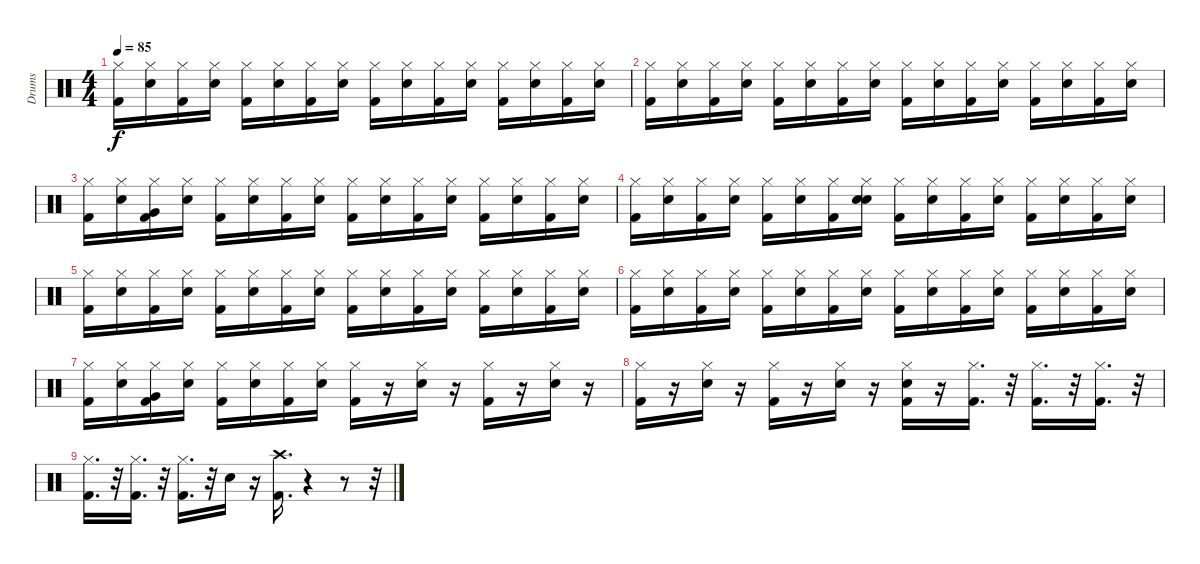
\track ("Drums" "Drums") {instrument percussion}
\staff {score}
\articulation defaults
\ts (4 4)
\tempo 85
\clef neutral
\ks c
("Hi-Hat (closed)" "Kick (hit) 2").16{dy f} ("Hi-Hat (closed)" "Snare (hit) 2").16 ("Kick (hit) 2" "Hi-Hat (closed)").16 ("Hi-Hat (closed)" "Snare (hit) 2").16 ("Kick (hit) 2" "Hi-Hat (closed)").16 ("Snare (hit) 2" "Hi-Hat (closed)").16 ("Hi-Hat (closed)" "Kick (hit) 2").16 ("Snare (hit) 2" "Hi-Hat (closed)").16 ("Hi-Hat (closed)" "Kick (hit) 2").16 ("Hi-Hat (closed)" "Snare (hit) 2").16 ("Kick (hit) 2" "Hi-Hat (closed)").16 ("Hi-Hat (closed)" "Snare (hit) 2").16 ("Kick (hit) 2" "Hi-Hat (closed)").16 ("Hi-Hat (closed)" "Snare (hit) 2").16 ("Hi-Hat (closed)" "Kick (hit) 2").16 ("Hi-Hat (closed)" "Snare (hit) 2").16 |
("Hi-Hat (closed)" "Kick (hit) 2").16 ("Snare (hit) 2" "Hi-Hat (closed)").16 ("Kick (hit) 2" "Hi-Hat (closed)").16 ("Hi-Hat (closed)" "Snare (hit) 2").16 ("Kick (hit) 2" "Hi-Hat (closed)").16 ("Hi-Hat (closed)" "Snare (hit) 2").16 ("Hi-Hat (closed)" "Kick (hit) 2").16 ("Snare (hit) 2" "Hi-Hat (closed)").16 ("Kick (hit) 2" "Hi-Hat (closed)").16 ("Snare (hit) 2" "Hi-Hat (closed)").16 ("Hi-Hat (closed)" "Kick (hit) 2").16 ("Hi-Hat (closed)" "Snare (hit) 2").16 ("Hi-Hat (closed)" "Kick (hit) 2").16 ("Hi-Hat (closed)" "Snare (hit) 2").16 ("Hi-Hat (closed)" "Kick (hit) 2").16 ("Hi-Hat (closed)" "Snare (hit) 2").16 |
("Kick (hit) 2" "Hi-Hat (closed)").16 ("Hi-Hat (closed)" "Snare (hit) 2").16 ("Very Low Tom (hit)" "Kick (hit) 2" "Hi-Hat (closed)").16 ("Hi-Hat (closed)" "Snare (hit) 2").16 ("Kick (hit) 2" "Hi-Hat (closed)").16 ("Snare (hit) 2" "Hi-Hat (closed)").16 ("Hi-Hat (closed)" "Kick (hit) 2").16 ("Snare (hit) 2" "Hi-Hat (closed)").16 ("Hi-Hat (closed)" "Kick (hit) 2").16 ("Snare (hit) 2" "Hi-Hat (closed)").16 ("Hi-Hat (closed)" "Kick (hit) 2").16 ("Hi-Hat (closed)" "Snare (hit) 2").16 ("Kick (hit) 2" "Hi-Hat (closed)").16 ("Hi-Hat (closed)" "Snare (hit) 2").16 ("Kick (hit) 2" "Hi-Hat (closed)").16 ("Hi-Hat (closed)" "Snare (hit) 2").16 |
("Hi-Hat (closed)" "Kick (hit) 2").16 ("Snare (hit) 2" "Hi-Hat (closed)").16 ("Hi-Hat (closed)" "Kick (hit) 2").16 ("Hi-Hat (closed)" "Snare (hit) 2").16 ("Kick (hit) 2" "Hi-Hat (closed)").16 ("Hi-Hat (closed)" "Snare (hit) 2").16 ("Kick (hit) 2" "Hi-Hat (closed)").16 ("Hi-Hat (closed)" "Snare (hit) 2" "Snare (hit) 2").16 ("Kick (hit) 2" "Hi-Hat (closed)").16 ("Hi-Hat (closed)" "Snare (hit) 2").16 ("Hi-Hat (closed)" "Kick (hit) 2").16 ("Hi-Hat (closed)" "Snare (hit) 2").16 ("Kick (hit) 2" "Hi-Hat (closed)").16 ("Snare (hit) 2" "Hi-Hat (closed)").16 ("Hi-Hat (closed)" "Kick (hit) 2").16 ("Hi-Hat (closed)" "Snare (hit) 2").16 |
("Kick (hit) 2" "Hi-Hat (closed)").16 ("Snare (hit) 2" "Hi-Hat (closed)").16 ("Hi-Hat (closed)" "Kick (hit) 2").16 ("Hi-Hat (closed)" "Snare (hit) 2").16 ("Kick (hit) 2" "Hi-Hat (closed)").16 ("Hi-Hat (closed)" "Snare (hit) 2").16 ("Hi-Hat (closed)" "Kick (hit) 2").16 ("Hi-Hat (closed)" "Snare (hit) 2").16 ("Hi-Hat (closed)" "Kick (hit) 2").16 ("Snare (hit) 2" "Hi-Hat (closed)").16 ("Hi-Hat (closed)" "Kick (hit) 2").16 ("Hi-Hat (closed)" "Snare (hit) 2").16 ("Hi-Hat (closed)" "Kick (hit) 2").16 ("Hi-Hat (closed)" "Snare (hit) 2").16 ("Kick (hit) 2" "Hi-Hat (closed)").16 ("Hi-Hat (closed)" "Snare (hit) 2").16 |
("Hi-Hat (closed)" "Kick (hit) 2").16 ("Snare (hit) 2" "Hi-Hat (closed)").16 ("Kick (hit) 2" "Hi-Hat (closed)").16 ("Hi-Hat (closed)" "Snare (hit) 2").16 ("Kick (hit) 2" "Hi-Hat (closed)").16 ("Snare (hit) 2" "Hi-Hat (closed)").16 ("Hi-Hat (closed)" "Kick (hit) 2").16 ("Snare (hit) 2" "Hi-Hat (closed)").16 ("Hi-Hat (closed)" "Kick (hit) 2").16 ("Hi-Hat (closed)" "Snare (hit) 2").16 ("Kick (hit) 2" "Hi-Hat (closed)").16 ("Snare (hit) 2" "Hi-Hat (closed)").16 ("Kick (hit) 2" "Hi-Hat (closed)").16 ("Snare (hit) 2" "Hi-Hat (closed)").16 ("Kick (hit) 2" "Hi-Hat (closed)").16 ("Hi-Hat (closed)" "Snare (hit) 2").16 |
("Hi-Hat (closed)" "Kick (hit) 2").16 ("Snare (hit) 2" "Hi-Hat (closed)").16 ("Very Low Tom (hit)" "Kick (hit) 2" "Hi-Hat (closed)").16 ("Hi-Hat (closed)" "Snare (hit) 2").16 ("Kick (hit) 2" "Hi-Hat (closed)").16 ("Hi-Hat (closed)" "Snare (hit) 2").16 ("Hi-Hat (closed)" "Kick (hit) 2").16 ("Snare (hit) 2" "Hi-Hat (closed)").16 ("Hi-Hat (closed)" "Kick (hit) 2").16 r.16 ("Snare (hit) 2" "Hi-Hat (closed)").16 r.16 ("Hi-Hat (closed)" "Kick (hit) 2").16 r.16 ("Hi-Hat (closed)" "Snare (hit) 2").16 r.16 |
("Hi-Hat (closed)" "Kick (hit) 2").16 r.16 ("Snare (hit) 2" "Hi-Hat (closed)").16 r.16 ("Kick (hit) 2" "Hi-Hat (closed)").16 r.16 ("Hi-Hat (closed)" "Snare (hit) 2").16 r.16 ("Kick (hit) 2" "Snare (hit) 2" "Hi-Hat (closed)").16 r.16 ("Hi-Hat (closed)" "Kick (hit) 2").16{d} r.32 ("Hi-Hat (closed)" "Kick (hit) 2").16{d} r.32 ("Kick (hit) 2" "Hi-Hat (closed)").16{d} r.32 |
("Kick (hit) 2" "Hi-Hat (closed)").16{d} r.32 ("Hi-Hat (closed)" "Kick (hit) 2").16{d} r.32 ("Kick (hit) 2" "Hi-Hat (closed)").16{d} r.32 "Snare (hit) 2".16 r.16 ("Crash high (hit)" "Kick (hit) 2").16{d} r.4 r.8 r.32
